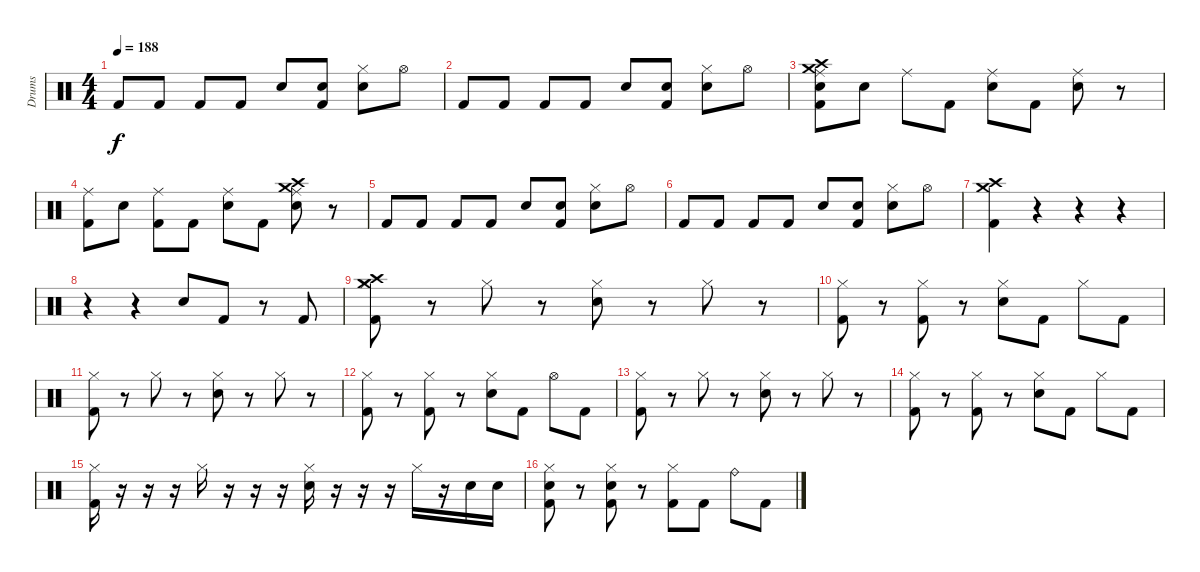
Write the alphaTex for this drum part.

\track ("Drums" "Drums") {instrument percussion}
\staff {score}
\articulation defaults
\ts (4 4)
\tempo 188
\clef neutral
\ks c "Kick (hit) 2".8{dy f} "Kick (hit) 2".8 "Kick (hit) 2".8 "Kick (hit) 2".8 "Snare (hit) 2".8
("Snare (hit) 2" "Kick (hit) 2").8 ("Hi-Hat (closed)" "Snare (hit) 2").8 "Hi-Hat (open)".8 |
"Kick (hit) 2".8 "Kick (hit) 2".8 "Kick (hit) 2".8 "Kick (hit) 2".8 "Snare (hit) 2".8 ("Snare (hit) 2" "Kick (hit) 2").8 ("Hi-Hat (closed)" "Snare (hit) 2").8 "Hi-Hat (open)".8 |
("Crash medium (hit)" "Crash high (hit)" "Ride (middle)" "Snare (hit) 2" "Kick (hit) 2").8 "Snare (hit) 2".8 "Ride (middle)".8 "Kick (hit) 2".8 ("Ride (middle)" "Snare (hit) 2").8 "Kick (hit) 2".8 ("Ride (middle)" "Snare (hit) 2").8 r.8 |
("Ride (middle)" "Kick (hit) 2").8 "Snare (hit) 2".8 ("Ride (middle)" "Kick (hit) 2").8 "Kick (hit) 2".8 ("Ride (middle)" "Snare (hit) 2").8 "Kick (hit) 2".8 ("Crash medium (hit)" "Crash high (hit)" "Ride (middle)" "Snare (hit) 2").8 r.8 |
"Kick (hit) 2".8 "Kick (hit) 2".8 "Kick (hit) 2".8 "Kick (hit) 2".8 "Snare (hit) 2".8 ("Snare (hit) 2" "Kick (hit) 2").8 ("Hi-Hat (closed)" "Snare (hit) 2").8 "Hi-Hat (open)".8 |
"Kick (hit) 2".8 "Kick (hit) 2".8 "Kick (hit) 2".8 "Kick (hit) 2".8 "Snare (hit) 2".8 ("Snare (hit) 2" "Kick (hit) 2").8 ("Hi-Hat (closed)" "Snare (hit) 2").8 "Hi-Hat (open)".8 |
("Crash medium (hit)" "Crash high (hit)" "Kick (hit) 2").4 r.4 r.4 r.4 |
r.4 r.4 "Snare (hit) 2".8 "Kick (hit) 2".8 r.8 "Kick (hit) 2".8 |
("Crash medium (hit)" "Crash high (hit)" "Hi-Hat (closed)" "Kick (hit) 2").8 r.8 "Hi-Hat (closed)".8 r.8 ("Hi-Hat (closed)" "Snare (hit) 2").8 r.8 "Hi-Hat (closed)".8 r.8 |
("Hi-Hat (closed)" "Kick (hit) 2").8 r.8 ("Hi-Hat (closed)" "Kick (hit) 2").8 r.8 ("Hi-Hat (closed)" "Snare (hit) 2").8 "Kick (hit) 2".8 "Hi-Hat (closed)".8 "Kick (hit) 2".8 |
("Hi-Hat (closed)" "Kick (hit) 2").8 r.8 "Hi-Hat (closed)".8 r.8 ("Hi-Hat (closed)" "Snare (hit) 2").8 r.8 "Hi-Hat (closed)".8 r.8 |
("Hi-Hat (closed)" "Kick (hit) 2").8 r.8 ("Hi-Hat (closed)" "Kick (hit) 2").8 r.8 ("Hi-Hat (closed)" "Snare (hit) 2").8 "Kick (hit) 2".8 "Hi-Hat (open)".8 "Kick (hit) 2".8 |
("Hi-Hat (closed)" "Kick (hit) 2").8 r.8 "Hi-Hat (closed)".8 r.8 ("Hi-Hat (closed)" "Snare (hit) 2").8 r.8 "Hi-Hat (closed)".8 r.8 |
("Hi-Hat (closed)" "Kick (hit) 2").8 r.8 ("Hi-Hat (closed)" "Kick (hit) 2").8 r.8 ("Hi-Hat (closed)" "Snare (hit) 2").8 "Kick (hit) 2".8 "Hi-Hat (closed)".8 "Kick (hit) 2".8 |
("Hi-Hat (closed)" "Kick (hit) 2").16 r.16 r.16 r.16 "Hi-Hat (closed)".16 r.16 r.16 r.16 ("Hi-Hat (closed)" "Snare (hit) 2").16 r.16 r.16 r.16 "Hi-Hat (closed)".16 r.16 "Snare (hit) 2".16 "Snare (hit) 2".16 |
("Hi-Hat (closed)" "Snare (hit) 2" "Kick (hit) 2").8 r.8 ("Hi-Hat (closed)" "Snare (hit) 2" "Kick (hit) 2").8 r.8 ("Hi-Hat (closed)" "Kick (hit) 2").8 "Kick (hit) 2".8 "Ride (bell)".8 "Kick (hit) 2".8
